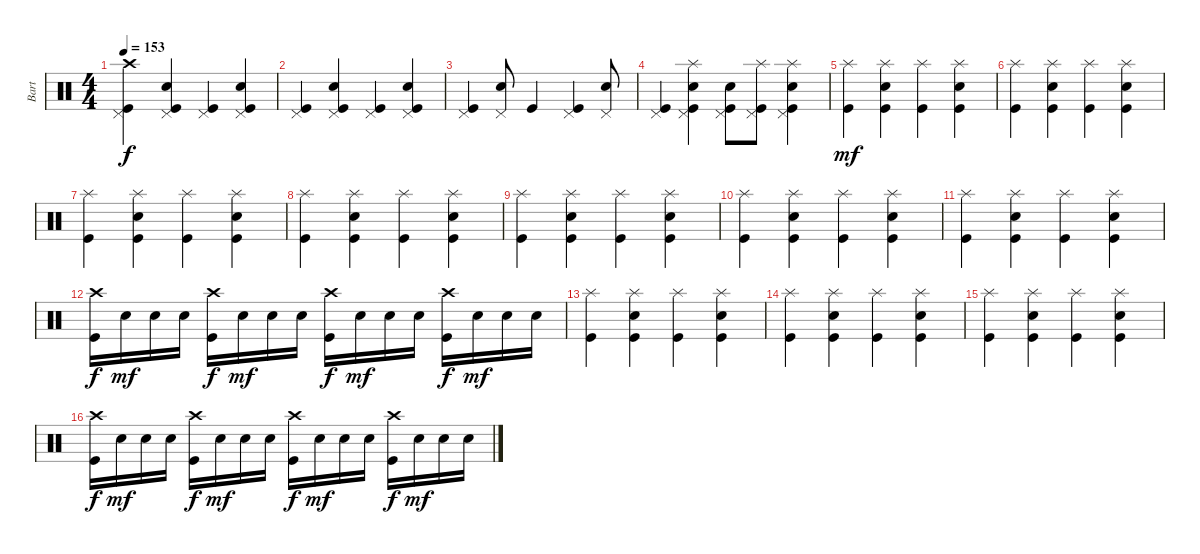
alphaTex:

\track ("Bart" "Bart") {instrument percussion}
\staff {score}
\articulation defaults
\ts (4 4)
\tempo 153
\clef neutral
\ks c
("Kick (hit)" "Pedal Hi-Hat (hit)" "Crash high (hit)").4{dy f} ("Kick (hit)" "Electric Snare (hit)" "Pedal Hi-Hat (hit)").4 ("Kick (hit)" "Pedal Hi-Hat (hit)").4 ("Kick (hit)" "Electric Snare (hit)" "Pedal Hi-Hat (hit)").4 |
("Kick (hit)" "Pedal Hi-Hat (hit)").4 ("Kick (hit)" "Electric Snare (hit)" "Pedal Hi-Hat (hit)").4 ("Kick (hit)" "Pedal Hi-Hat (hit)").4 ("Kick (hit)" "Electric Snare (hit)" "Pedal Hi-Hat (hit)").4 |
("Kick (hit)" "Pedal Hi-Hat (hit)").4 ("Electric Snare (hit)" "Pedal Hi-Hat (hit)").8 "Kick (hit)".4 ("Kick (hit)" "Pedal Hi-Hat (hit)").4 ("Electric Snare (hit)" "Pedal Hi-Hat (hit)").8 |
("Kick (hit)" "Pedal Hi-Hat (hit)").4 ("Kick (hit)" "Electric Snare (hit)" "Pedal Hi-Hat (hit)" "Splash (hit)").4 ("Kick (hit)" "Electric Snare (hit)" "Pedal Hi-Hat (hit)").8 ("Kick (hit)" "Pedal Hi-Hat (hit)" "Splash (hit)").8 ("Kick (hit)" "Electric Snare (hit)" "Pedal Hi-Hat (hit)" "Splash (hit)").4 |
("Kick (hit)" "Splash (hit)").4{dy mf} ("Kick (hit)" "Electric Snare (hit)" "Splash (hit)").4 ("Kick (hit)" "Splash (hit)").4 ("Kick (hit)" "Electric Snare (hit)" "Splash (hit)").4 |
("Kick (hit)" "Splash (hit)").4 ("Kick (hit)" "Electric Snare (hit)" "Splash (hit)").4 ("Kick (hit)" "Splash (hit)").4 ("Kick (hit)" "Electric Snare (hit)" "Splash (hit)").4 |
("Kick (hit)" "Splash (hit)").4 ("Kick (hit)" "Electric Snare (hit)" "Splash (hit)").4 ("Kick (hit)" "Splash (hit)").4 ("Kick (hit)" "Electric Snare (hit)" "Splash (hit)").4 |
("Kick (hit)" "Splash (hit)").4 ("Kick (hit)" "Electric Snare (hit)" "Splash (hit)").4 ("Kick (hit)" "Splash (hit)").4 ("Kick (hit)" "Electric Snare (hit)" "Splash (hit)").4 |
("Kick (hit)" "Splash (hit)").4 ("Kick (hit)" "Electric Snare (hit)" "Splash (hit)").4 ("Kick (hit)" "Splash (hit)").4 ("Kick (hit)" "Electric Snare (hit)" "Splash (hit)").4 |
("Kick (hit)" "Splash (hit)").4 ("Kick (hit)" "Electric Snare (hit)" "Splash (hit)").4 ("Kick (hit)" "Splash (hit)").4 ("Kick (hit)" "Electric Snare (hit)" "Splash (hit)").4 |
("Kick (hit)" "Splash (hit)").4 ("Kick (hit)" "Electric Snare (hit)" "Splash (hit)").4 ("Kick (hit)" "Splash (hit)").4 ("Kick (hit)" "Electric Snare (hit)" "Splash (hit)").4 |
("Kick (hit)" "Crash high (hit)").16{dy f} "Electric Snare (hit)".16{dy mf} "Electric Snare (hit)".16 "Electric Snare (hit)".16 ("Kick (hit)" "Crash high (hit)").16{dy f} "Electric Snare (hit)".16{dy mf} "Electric Snare (hit)".16 "Electric Snare (hit)".16 ("Kick (hit)" "Crash high (hit)").16{dy f} "Electric Snare (hit)".16{dy mf} "Electric Snare (hit)".16 "Electric Snare (hit)".16 ("Kick (hit)" "Crash high (hit)").16{dy f} "Electric Snare (hit)".16{dy mf} "Electric Snare (hit)".16 "Electric Snare (hit)".16 |
("Kick (hit)" "Splash (hit)").4 ("Kick (hit)" "Electric Snare (hit)" "Splash (hit)").4 ("Kick (hit)" "Splash (hit)").4 ("Kick (hit)" "Electric Snare (hit)" "Splash (hit)").4 |
("Kick (hit)" "Splash (hit)").4 ("Kick (hit)" "Electric Snare (hit)" "Splash (hit)").4 ("Kick (hit)" "Splash (hit)").4 ("Kick (hit)" "Electric Snare (hit)" "Splash (hit)").4 |
("Kick (hit)" "Splash (hit)").4 ("Kick (hit)" "Electric Snare (hit)" "Splash (hit)").4 ("Kick (hit)" "Splash (hit)").4 ("Kick (hit)" "Electric Snare (hit)" "Splash (hit)").4 |
("Kick (hit)" "Crash high (hit)").16{dy f} "Electric Snare (hit)".16{dy mf} "Electric Snare (hit)".16 "Electric Snare (hit)".16 ("Kick (hit)" "Crash high (hit)").16{dy f} "Electric Snare (hit)".16{dy mf} "Electric Snare (hit)".16 "Electric Snare (hit)".16 ("Kick (hit)" "Crash high (hit)").16{dy f} "Electric Snare (hit)".16{dy mf} "Electric Snare (hit)".16 "Electric Snare (hit)".16 ("Kick (hit)" "Crash high (hit)").16{dy f} "Electric Snare (hit)".16{dy mf} "Electric Snare (hit)".16 "Electric Snare (hit)".16
